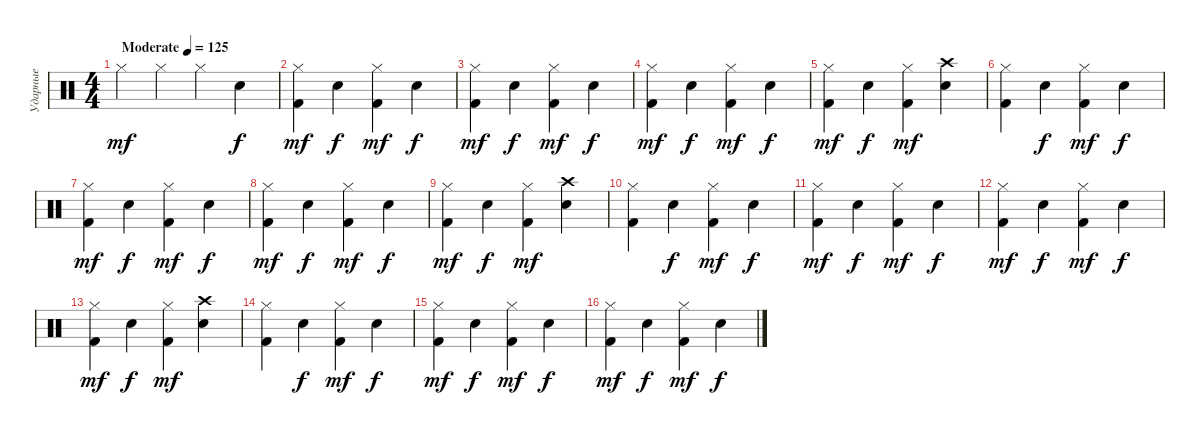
\track ("Ударные" "Ударные") {instrument percussion}
\staff {score}
\articulation defaults
\ts (4 4)
\tempo (125 "Moderate")
\clef neutral
\ks c "Hi-Hat (closed)".4{dy mf} "Hi-Hat (closed)".4 "Hi-Hat (closed)".4 "Electric Snare (hit)".4{dy f}
|
("Hi-Hat (closed)" "Kick (hit) 2").4{dy mf} "Electric Snare (hit)".4{dy f} ("Hi-Hat (closed)" "Kick (hit) 2").4{dy mf} "Electric Snare (hit)".4{dy f} |
("Hi-Hat (closed)" "Kick (hit) 2").4{dy mf} "Electric Snare (hit)".4{dy f} ("Hi-Hat (closed)" "Kick (hit) 2").4{dy mf} "Electric Snare (hit)".4{dy f} |
("Hi-Hat (closed)" "Kick (hit) 2").4{dy mf} "Electric Snare (hit)".4{dy f} ("Hi-Hat (closed)" "Kick (hit) 2").4{dy mf} "Electric Snare (hit)".4{dy f} |
("Hi-Hat (closed)" "Kick (hit) 2").4{dy mf} "Electric Snare (hit)".4{dy f} ("Hi-Hat (closed)" "Kick (hit) 2").4{dy mf} ("Crash high (hit)" "Electric Snare (hit)").4 |
("Hi-Hat (closed)" "Kick (hit) 2").4 "Electric Snare (hit)".4{dy f} ("Hi-Hat (closed)" "Kick (hit) 2").4{dy mf} "Electric Snare (hit)".4{dy f} |
("Hi-Hat (closed)" "Kick (hit) 2").4{dy mf} "Electric Snare (hit)".4{dy f} ("Hi-Hat (closed)" "Kick (hit) 2").4{dy mf} "Electric Snare (hit)".4{dy f} |
("Hi-Hat (closed)" "Kick (hit) 2").4{dy mf} "Electric Snare (hit)".4{dy f} ("Hi-Hat (closed)" "Kick (hit) 2").4{dy mf} "Electric Snare (hit)".4{dy f} |
("Hi-Hat (closed)" "Kick (hit) 2").4{dy mf} "Electric Snare (hit)".4{dy f} ("Hi-Hat (closed)" "Kick (hit) 2").4{dy mf} ("Crash high (hit)" "Electric Snare (hit)").4 |
("Hi-Hat (closed)" "Kick (hit) 2").4 "Electric Snare (hit)".4{dy f} ("Hi-Hat (closed)" "Kick (hit) 2").4{dy mf} "Electric Snare (hit)".4{dy f} |
("Hi-Hat (closed)" "Kick (hit) 2").4{dy mf} "Electric Snare (hit)".4{dy f} ("Hi-Hat (closed)" "Kick (hit) 2").4{dy mf} "Electric Snare (hit)".4{dy f} |
("Hi-Hat (closed)" "Kick (hit) 2").4{dy mf} "Electric Snare (hit)".4{dy f} ("Hi-Hat (closed)" "Kick (hit) 2").4{dy mf} "Electric Snare (hit)".4{dy f} |
("Hi-Hat (closed)" "Kick (hit) 2").4{dy mf} "Electric Snare (hit)".4{dy f} ("Hi-Hat (closed)" "Kick (hit) 2").4{dy mf} ("Crash high (hit)" "Electric Snare (hit)").4 |
("Hi-Hat (closed)" "Kick (hit) 2").4 "Electric Snare (hit)".4{dy f} ("Hi-Hat (closed)" "Kick (hit) 2").4{dy mf} "Electric Snare (hit)".4{dy f} |
("Hi-Hat (closed)" "Kick (hit) 2").4{dy mf} "Electric Snare (hit)".4{dy f} ("Hi-Hat (closed)" "Kick (hit) 2").4{dy mf} "Electric Snare (hit)".4{dy f} |
("Hi-Hat (closed)" "Kick (hit) 2").4{dy mf} "Electric Snare (hit)".4{dy f} ("Hi-Hat (closed)" "Kick (hit) 2").4{dy mf} "Electric Snare (hit)".4{dy f}
